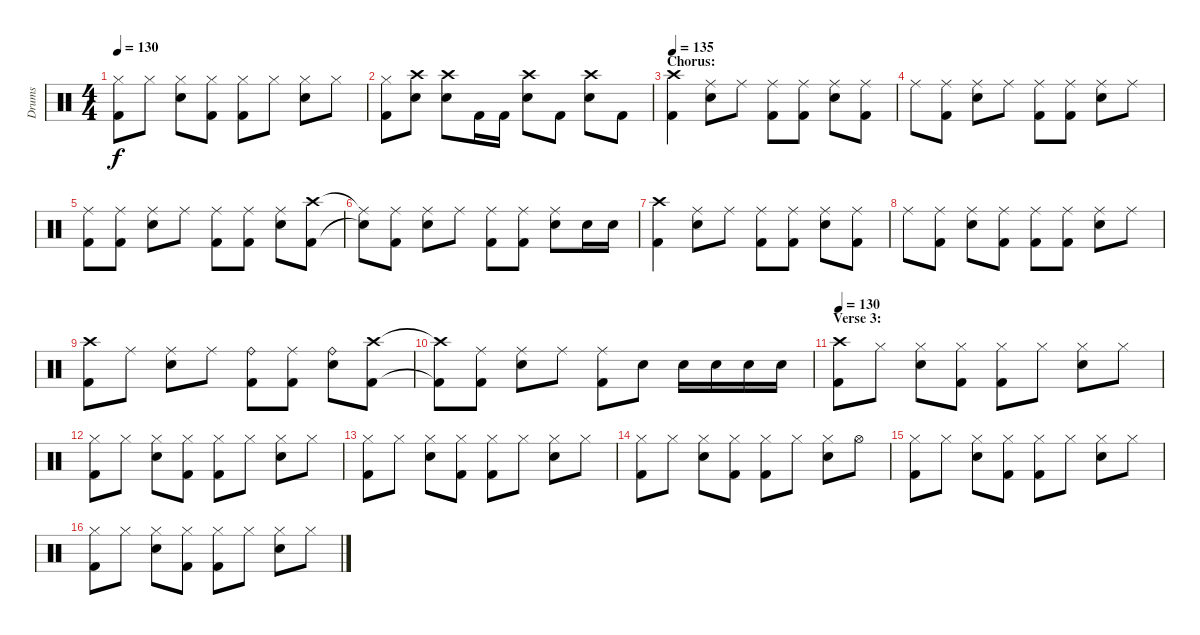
\track ("Drums" "Drums") {instrument percussion}
\staff {score}
\articulation defaults
\ts (4 4)
\tempo 130
\clef neutral
\ks c
("Hi-Hat (closed)" "Kick (hit) 2").8{dy f} "Hi-Hat (closed)".8 ("Hi-Hat (closed)" "Electric Snare (hit)").8 ("Hi-Hat (closed)" "Kick (hit) 2").8 ("Hi-Hat (closed)" "Kick (hit) 2").8 "Hi-Hat (closed)".8 ("Hi-Hat (closed)" "Electric Snare (hit)").8 "Hi-Hat (closed)".8 |
("Hi-Hat (closed)" "Kick (hit) 2").8 ("Crash high (hit)" "Electric Snare (hit)").8 ("Crash high (hit)" "Electric Snare (hit)").8 "Kick (hit) 2".16 "Kick (hit) 2".16 ("Crash high (hit)" "Electric Snare (hit)").8 "Kick (hit) 2".8 ("Crash high (hit)" "Electric Snare (hit)").8 "Kick (hit) 2".8 |
\section ("" "Chorus:")
\tempo 135
("Crash high (hit)" "Kick (hit) 2").4 ("Ride (middle)" "Electric Snare (hit)").8 "Ride (middle)".8 ("Ride (middle)" "Kick (hit) 2").8 ("Ride (middle)" "Kick (hit) 2").8 ("Ride (middle)" "Electric Snare (hit)").8 ("Ride (middle)" "Kick (hit) 2").8 |
"Ride (middle)".8 ("Ride (middle)" "Kick (hit) 2").8 ("Ride (middle)" "Electric Snare (hit)").8 "Ride (middle)".8 ("Ride (middle)" "Kick (hit) 2").8 ("Ride (middle)" "Kick (hit) 2").8 ("Ride (middle)" "Electric Snare (hit)").8 "Ride (middle)".8 |
("Ride (middle)" "Kick (hit) 2").8 ("Ride (middle)" "Kick (hit) 2").8 ("Ride (middle)" "Electric Snare (hit)").8 "Ride (middle)".8 ("Ride (middle)" "Kick (hit) 2").8 ("Ride (middle)" "Kick (hit) 2").8 ("Ride (middle)" "Electric Snare (hit)").8 ("Crash high (hit)" "Kick (hit) 2").8 |
("Ride (middle)"{t} "Snare (hit)"{t}).8 ("Ride (middle)" "Kick (hit) 2").8 ("Ride (middle)" "Electric Snare (hit)").8 "Ride (middle)".8 ("Ride (middle)" "Kick (hit) 2").8 ("Ride (middle)" "Kick (hit) 2").8 ("Ride (middle)" "Electric Snare (hit)").8 "Electric Snare (hit)".16 "Electric Snare (hit)".16 |
("Crash high (hit)" "Kick (hit) 2").4 ("Ride (middle)" "Electric Snare (hit)").8 "Ride (middle)".8 ("Ride (middle)" "Kick (hit) 2").8 ("Ride (middle)" "Kick (hit) 2").8 ("Ride (middle)" "Electric Snare (hit)").8 ("Ride (middle)" "Kick (hit) 2").8 |
"Ride (middle)".8 ("Ride (middle)" "Kick (hit) 2").8 ("Ride (middle)" "Electric Snare (hit)").8 ("Ride (middle)" "Kick (hit) 2").8 ("Ride (middle)" "Kick (hit) 2").8 ("Ride (middle)" "Kick (hit) 2").8 ("Ride (middle)" "Electric Snare (hit)").8 "Ride (middle)".8 |
("Crash high (hit)" "Kick (hit) 2").8 "Ride (middle)".8 ("Ride (middle)" "Electric Snare (hit)").8 "Ride (middle)".8 ("Ride (bell)" "Kick (hit) 2").8 ("Ride (middle)" "Kick (hit) 2").8 ("Ride (bell)" "Electric Snare (hit)").8 ("Crash high (hit)" "Kick (hit) 2").8 |
("Crash high (hit)"{t} "Kick (hit) 2"{t}).8 ("Ride (middle)" "Kick (hit) 2").8 ("Ride (middle)" "Electric Snare (hit)").8 "Ride (middle)".8 ("Ride (middle)" "Kick (hit) 2").8 "Electric Snare (hit)".8 "Electric Snare (hit)".16 "Electric Snare (hit)".16 "Electric Snare (hit)".16 "Electric Snare (hit)".16 |
\section ("" "Verse 3:")
\tempo 130
("Crash high (hit)" "Kick (hit) 2").8 "Hi-Hat (closed)".8 ("Hi-Hat (closed)" "Electric Snare (hit)").8 ("Hi-Hat (closed)" "Kick (hit) 2").8 ("Hi-Hat (closed)" "Kick (hit) 2").8 "Hi-Hat (closed)".8 ("Hi-Hat (closed)" "Electric Snare (hit)").8 "Hi-Hat (closed)".8 |
("Hi-Hat (closed)" "Kick (hit) 2").8 "Hi-Hat (closed)".8 ("Hi-Hat (closed)" "Electric Snare (hit)").8 ("Hi-Hat (closed)" "Kick (hit) 2").8 ("Hi-Hat (closed)" "Kick (hit) 2").8 "Hi-Hat (closed)".8 ("Hi-Hat (closed)" "Electric Snare (hit)").8 "Hi-Hat (closed)".8 |
("Hi-Hat (closed)" "Kick (hit) 2").8 "Hi-Hat (closed)".8 ("Hi-Hat (closed)" "Electric Snare (hit)").8 ("Hi-Hat (closed)" "Kick (hit) 2").8 ("Hi-Hat (closed)" "Kick (hit) 2").8 "Hi-Hat (closed)".8 ("Hi-Hat (closed)" "Electric Snare (hit)").8 "Hi-Hat (closed)".8 |
("Hi-Hat (closed)" "Kick (hit) 2").8 "Hi-Hat (closed)".8 ("Hi-Hat (closed)" "Electric Snare (hit)").8 ("Hi-Hat (closed)" "Kick (hit) 2").8 ("Hi-Hat (closed)" "Kick (hit) 2").8 "Hi-Hat (closed)".8 ("Hi-Hat (closed)" "Electric Snare (hit)").8 "Hi-Hat (open)".8 |
("Hi-Hat (closed)" "Kick (hit) 2").8 "Hi-Hat (closed)".8 ("Hi-Hat (closed)" "Electric Snare (hit)").8 ("Hi-Hat (closed)" "Kick (hit) 2").8 ("Hi-Hat (closed)" "Kick (hit) 2").8 "Hi-Hat (closed)".8 ("Hi-Hat (closed)" "Electric Snare (hit)").8 "Hi-Hat (closed)".8 |
("Hi-Hat (closed)" "Kick (hit) 2").8 "Hi-Hat (closed)".8 ("Hi-Hat (closed)" "Electric Snare (hit)").8 ("Hi-Hat (closed)" "Kick (hit) 2").8 ("Hi-Hat (closed)" "Kick (hit) 2").8 "Hi-Hat (closed)".8 ("Hi-Hat (closed)" "Electric Snare (hit)").8 "Hi-Hat (closed)".8
